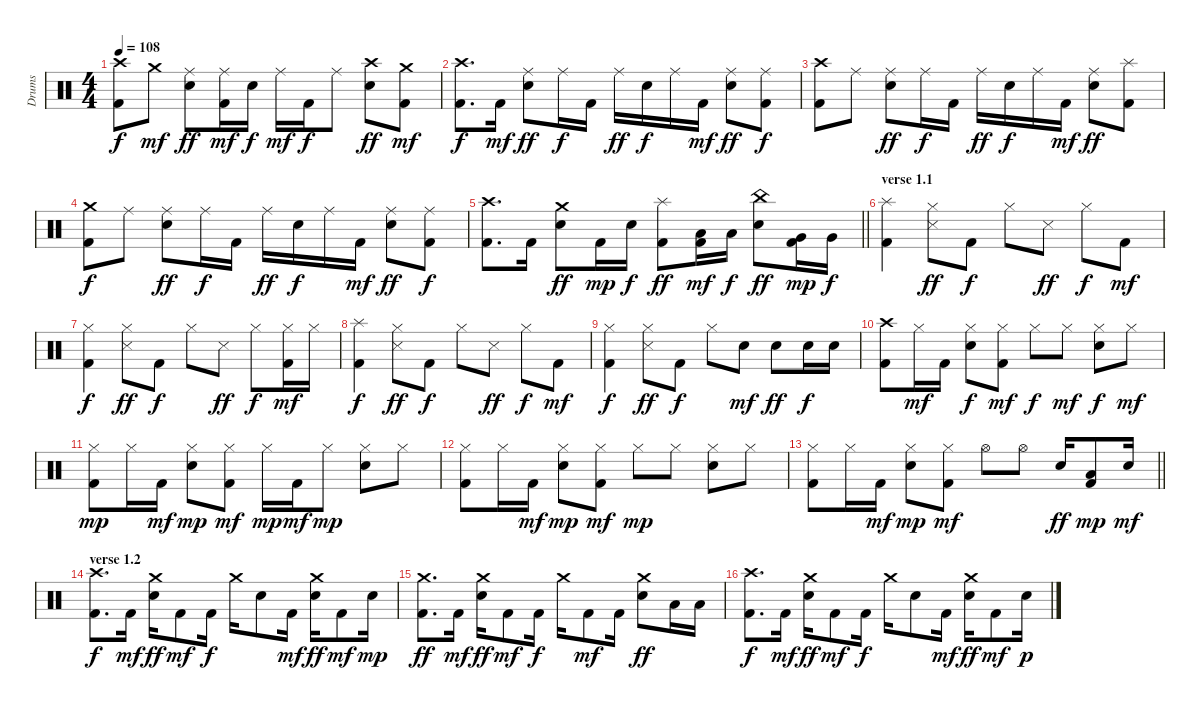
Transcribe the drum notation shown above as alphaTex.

\track ("Drums" "Drums") {instrument percussion}
\staff {score}
\articulation defaults
\ts (4 4)
\tempo 108
\clef neutral
\ks c
("Crash high (hit)" "Kick (hit) 2").8{dy f} "Crash medium (hit)".8{dy mf} ("Ride (middle)" "Electric Snare (hit)").8{dy ff} ("Ride (middle)" "Kick (hit) 2").16{dy mf} "Electric Snare (hit)".16{dy f} "Ride (middle)".16{dy mf} "Kick (hit) 2".16{dy f} "Ride (middle)".8 ("Crash high (hit)" "Electric Snare (hit)").8{dy ff} ("Crash medium (hit)" "Kick (hit) 2").8{dy mf} |
("Crash high (hit)" "Kick (hit) 2").8{d dy f} "Kick (hit) 2".16{dy mf} ("Ride (middle)" "Electric Snare (hit)").8{dy ff} "Ride (middle)".16{dy f} "Kick (hit) 2".16 "Ride (middle)".16{dy ff} "Electric Snare (hit)".16{dy f} "Ride (middle)".16 "Kick (hit) 2".16{dy mf} ("Ride (middle)" "Electric Snare (hit)").8{dy ff} ("Ride (middle)" "Kick (hit) 2").8{dy f} |
("Crash high (hit)" "Kick (hit) 2").8 "Ride (middle)".8 ("Ride (middle)" "Electric Snare (hit)").8{dy ff} "Ride (middle)".16{dy f} "Kick (hit) 2".16 "Ride (middle)".16{dy ff} "Electric Snare (hit)".16{dy f} "Ride (middle)".16 "Kick (hit) 2".16{dy mf} ("Ride (middle)" "Electric Snare (hit)").8{dy ff} ("Splash (hit)" "Kick (hit) 2").8 |
("Crash medium (hit)" "Kick (hit) 2").8{dy f} "Ride (middle)".8 ("Ride (middle)" "Electric Snare (hit)").8{dy ff} "Ride (middle)".16{dy f} "Kick (hit) 2".16 "Ride (middle)".16{dy ff} "Electric Snare (hit)".16{dy f} "Ride (middle)".16 "Kick (hit) 2".16{dy mf} ("Ride (middle)" "Electric Snare (hit)").8{dy ff} ("Ride (middle)" "Kick (hit) 2").8{dy f} |
\barLineRight lightlight
("Crash high (hit)" "Kick (hit) 2").8{d} "Kick (hit) 2".16 ("Crash medium (hit)" "Electric Snare (hit)").8{dy ff} "Kick (hit) 2".16{dy mp} "Electric Snare (hit)".16{dy f} ("Splash (hit)" "Kick (hit) 2").8{dy ff} ("Low Tom (hit)" "Kick (hit) 2").16{dy mf} "Low Tom (hit)".16{dy f} ("China (hit)" "Electric Snare (hit)").8{dy ff} ("Very Low Tom (hit)" "Kick (hit) 2").16{dy mp} "Very Low Tom (hit)".16{dy f} |
\section ("" "verse 1.1")
("Splash (hit)" "Kick (hit) 2").4 ("Hi-Hat (closed)" "Snare (side stick) 3").8{dy ff} "Kick (hit) 2".8{dy f} "Hi-Hat (closed)".8 "Snare (side stick) 3".8{dy ff} "Hi-Hat (closed)".8{dy f} "Kick (hit) 2".8{dy mf} |
("Hi-Hat (closed)" "Kick (hit) 2").4{dy f} ("Hi-Hat (closed)" "Snare (side stick) 3").8{dy ff} "Kick (hit) 2".8{dy f} "Hi-Hat (closed)".8 "Snare (side stick) 3".8{dy ff} "Hi-Hat (closed)".8{dy f} ("Hi-Hat (closed)" "Kick (hit) 2").16{dy mf} "Hi-Hat (closed)".16 |
("Splash (hit)" "Kick (hit) 2").4{dy f} ("Hi-Hat (closed)" "Snare (side stick) 3").8{dy ff} "Kick (hit) 2".8{dy f} "Hi-Hat (closed)".8 "Snare (side stick) 3".8{dy ff} "Hi-Hat (closed)".8{dy f} "Kick (hit) 2".8{dy mf} |
("Hi-Hat (closed)" "Kick (hit) 2").4{dy f} ("Hi-Hat (closed)" "Snare (side stick) 3").8{dy ff} "Kick (hit) 2".8{dy f} "Hi-Hat (closed)".8 "Electric Snare (hit)".8{dy mf} "Electric Snare (hit)".8{dy ff} "Electric Snare (hit)".16{dy f} "Electric Snare (hit)".16 |
("Crash high (hit)" "Kick (hit) 2").8 "Hi-Hat (closed)".16{dy mf} "Kick (hit) 2".16 ("Hi-Hat (closed)" "Electric Snare (hit)").8{dy f} ("Hi-Hat (closed)" "Kick (hit) 2").8{dy mf} "Hi-Hat (closed)".8{dy f} "Hi-Hat (closed)".8{dy mf} ("Hi-Hat (closed)" "Electric Snare (hit)").8{dy f} "Hi-Hat (closed)".8{dy mf} |
("Hi-Hat (closed)" "Kick (hit) 2").8{dy mp} "Hi-Hat (closed)".16 "Kick (hit) 2".16{dy mf} ("Hi-Hat (closed)" "Electric Snare (hit)").8{dy mp} ("Hi-Hat (closed)" "Kick (hit) 2").8{dy mf} "Hi-Hat (closed)".16{dy mp} "Kick (hit) 2".16{dy mf} "Hi-Hat (closed)".8{dy mp} ("Hi-Hat (closed)" "Electric Snare (hit)").8 "Hi-Hat (closed)".8 |
("Hi-Hat (closed)" "Kick (hit) 2").8 "Hi-Hat (closed)".16 "Kick (hit) 2".16{dy mf} ("Hi-Hat (closed)" "Electric Snare (hit)").8{dy mp} ("Hi-Hat (closed)" "Kick (hit) 2").8{dy mf} "Hi-Hat (closed)".8{dy mp} "Hi-Hat (closed)".8 ("Hi-Hat (closed)" "Electric Snare (hit)").8 "Hi-Hat (closed)".8 |
\barLineRight lightlight
("Hi-Hat (closed)" "Kick (hit) 2").8 "Hi-Hat (closed)".16 "Kick (hit) 2".16{dy mf} ("Hi-Hat (closed)" "Electric Snare (hit)").8{dy mp} ("Hi-Hat (closed)" "Kick (hit) 2").8{dy mf} "Hi-Hat (open)".8 "Hi-Hat (open)".8 "Electric Snare (hit)".16{dy ff} ("Low Tom (hit)" "Kick (hit) 2").8{dy mp} "Electric Snare (hit)".16{dy mf} |
\section ("" "verse 1.2")
("Crash high (hit)" "Kick (hit) 2").8{d dy f} "Kick (hit) 2".16{dy mf} ("Crash medium (hit)" "Electric Snare (hit)").16{dy ff} "Kick (hit) 2".8{dy mf} "Kick (hit) 2".16{dy f} "Crash medium (hit)".16 "Electric Snare (hit)".8 "Kick (hit) 2".16{dy mf} ("Crash medium (hit)" "Electric Snare (hit)").16{dy ff} "Kick (hit) 2".8{dy mf} "Electric Snare (hit)".16{dy mp} |
("Crash medium (hit)" "Kick (hit) 2").8{d dy ff} "Kick (hit) 2".16{dy mf} ("Crash medium (hit)" "Electric Snare (hit)").16{dy ff} "Kick (hit) 2".8{dy mf} "Kick (hit) 2".16{dy f} "Crash medium (hit)".16 "Kick (hit) 2".8{dy mf} "Kick (hit) 2".16 ("Crash medium (hit)" "Electric Snare (hit)").8{dy ff} "Low Tom (hit)".16 "Low Tom (hit)".16 |
("Crash high (hit)" "Kick (hit) 2").8{d dy f} "Kick (hit) 2".16{dy mf} ("Crash medium (hit)" "Electric Snare (hit)").16{dy ff} "Kick (hit) 2".8{dy mf} "Kick (hit) 2".16{dy f} "Crash medium (hit)".16 "Electric Snare (hit)".8 "Kick (hit) 2".16{dy mf} ("Crash medium (hit)" "Electric Snare (hit)").16{dy ff} "Kick (hit) 2".8{dy mf} "Electric Snare (hit)".16{dy p}
